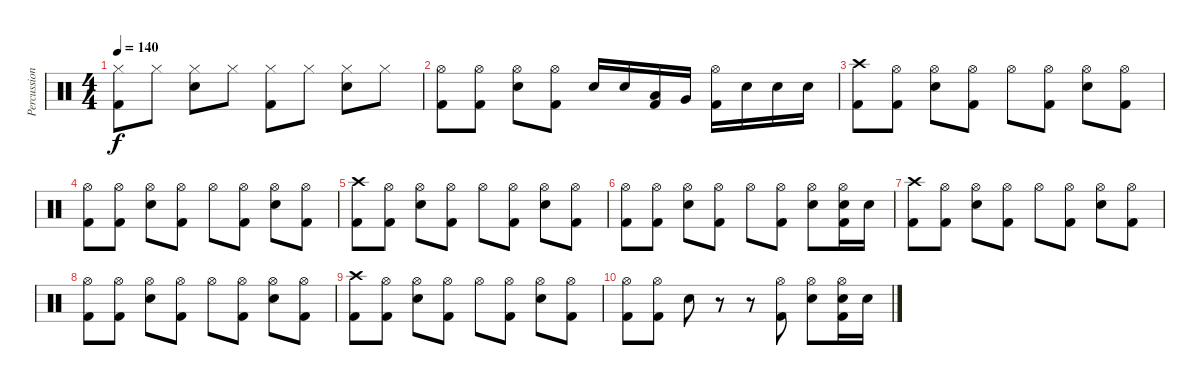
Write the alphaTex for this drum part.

\track ("Percussion" "Percussion") {instrument percussion}
\staff {score}
\articulation defaults
\ts (4 4)
\tempo 140
\clef neutral
\ks c
("Hi-Hat (closed)" "Kick (hit) 2").8{dy f} "Hi-Hat (closed)".8 ("Hi-Hat (closed)" "Electric Snare (hit)").8 "Hi-Hat (closed)".8 ("Hi-Hat (closed)" "Kick (hit) 2").8 "Hi-Hat (closed)".8 ("Hi-Hat (closed)" "Electric Snare (hit)").8 "Hi-Hat (closed)".8 |
("Hi-Hat (open)" "Kick (hit) 2").8 ("Hi-Hat (open)" "Kick (hit) 2").8 ("Hi-Hat (open)" "Electric Snare (hit)").8 ("Hi-Hat (open)" "Kick (hit) 2").8 "Electric Snare (hit)".16 "Electric Snare (hit)".16 ("Low Tom (hit)" "Kick (hit) 2").16 "Very Low Tom (hit)".16 ("Hi-Hat (open)" "Kick (hit) 2").16 "Electric Snare (hit)".16 "Electric Snare (hit)".16 "Electric Snare (hit)".16 |
("Crash high (hit)" "Kick (hit) 2").8 ("Hi-Hat (open)" "Kick (hit) 2").8 ("Hi-Hat (open)" "Electric Snare (hit)").8 ("Hi-Hat (open)" "Kick (hit) 2").8 "Hi-Hat (open)".8 ("Hi-Hat (open)" "Kick (hit) 2").8 ("Hi-Hat (open)" "Electric Snare (hit)").8 ("Hi-Hat (open)" "Kick (hit) 2").8 |
("Hi-Hat (open)" "Kick (hit) 2").8 ("Hi-Hat (open)" "Kick (hit) 2").8 ("Hi-Hat (open)" "Electric Snare (hit)").8 ("Hi-Hat (open)" "Kick (hit) 2").8 "Hi-Hat (open)".8 ("Hi-Hat (open)" "Kick (hit) 2").8 ("Hi-Hat (open)" "Electric Snare (hit)").8 ("Hi-Hat (open)" "Kick (hit) 2").8 |
("Crash high (hit)" "Kick (hit) 2").8 ("Hi-Hat (open)" "Kick (hit) 2").8 ("Hi-Hat (open)" "Electric Snare (hit)").8 ("Hi-Hat (open)" "Kick (hit) 2").8 "Hi-Hat (open)".8 ("Hi-Hat (open)" "Kick (hit) 2").8 ("Hi-Hat (open)" "Electric Snare (hit)").8 ("Hi-Hat (open)" "Kick (hit) 2").8 |
("Hi-Hat (open)" "Kick (hit) 2").8 ("Hi-Hat (open)" "Kick (hit) 2").8 ("Hi-Hat (open)" "Electric Snare (hit)").8 ("Hi-Hat (open)" "Kick (hit) 2").8 "Hi-Hat (open)".8 ("Hi-Hat (open)" "Kick (hit) 2").8 ("Hi-Hat (open)" "Electric Snare (hit)").8 ("Hi-Hat (open)" "Electric Snare (hit)" "Kick (hit) 2").16 "Electric Snare (hit)".16 |
("Crash high (hit)" "Kick (hit) 2").8 ("Hi-Hat (open)" "Kick (hit) 2").8 ("Hi-Hat (open)" "Electric Snare (hit)").8 ("Hi-Hat (open)" "Kick (hit) 2").8 "Hi-Hat (open)".8 ("Hi-Hat (open)" "Kick (hit) 2").8 ("Hi-Hat (open)" "Electric Snare (hit)").8 ("Hi-Hat (open)" "Kick (hit) 2").8 |
("Hi-Hat (open)" "Kick (hit) 2").8 ("Hi-Hat (open)" "Kick (hit) 2").8 ("Hi-Hat (open)" "Electric Snare (hit)").8 ("Hi-Hat (open)" "Kick (hit) 2").8 "Hi-Hat (open)".8 ("Hi-Hat (open)" "Kick (hit) 2").8 ("Hi-Hat (open)" "Electric Snare (hit)").8 ("Hi-Hat (open)" "Kick (hit) 2").8 |
("Crash high (hit)" "Kick (hit) 2").8 ("Hi-Hat (open)" "Kick (hit) 2").8 ("Hi-Hat (open)" "Electric Snare (hit)").8 ("Hi-Hat (open)" "Kick (hit) 2").8 "Hi-Hat (open)".8 ("Hi-Hat (open)" "Kick (hit) 2").8 ("Hi-Hat (open)" "Electric Snare (hit)").8 ("Hi-Hat (open)" "Kick (hit) 2").8 |
("Hi-Hat (open)" "Kick (hit) 2").8 ("Hi-Hat (open)" "Kick (hit) 2").8 "Electric Snare (hit)".8 r.8 r.8 ("Hi-Hat (open)" "Kick (hit) 2").8 ("Hi-Hat (open)" "Electric Snare (hit)").8 ("Hi-Hat (open)" "Electric Snare (hit)" "Kick (hit) 2").16 "Electric Snare (hit)".16
